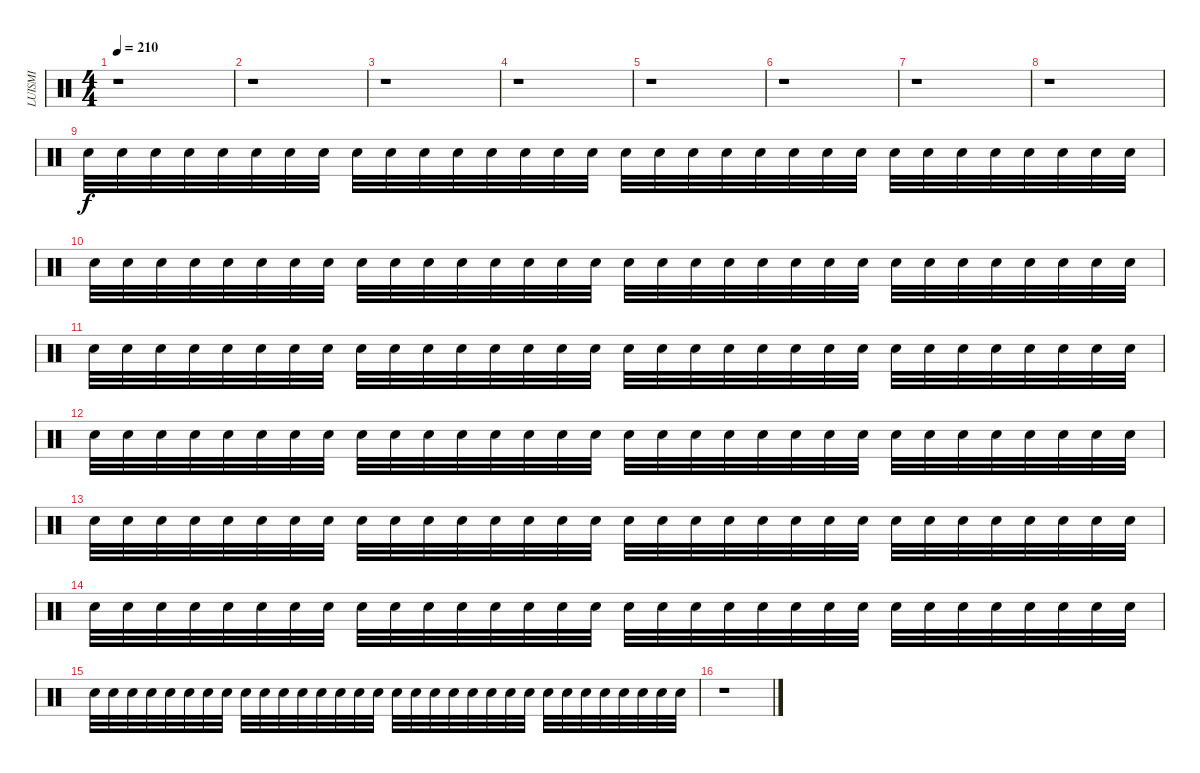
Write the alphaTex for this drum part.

\track ("LUISMI" "LUISMI") {instrument percussion}
\staff {score}
\articulation defaults
\ts (4 4)
\tempo 210
\clef neutral
\ks c
r.1{dy f} |
r.1 |
r.1 |
r.1 |
r.1 |
r.1 |
r.1 |
r.1 |
"Electric Snare (hit)".32{volume 1} "Snare (hit) 2".32 "Snare (hit) 2".32 "Snare (hit) 2".32 "Snare (hit) 2".32 "Snare (hit) 2".32 "Snare (hit) 2".32 "Snare (hit) 2".32 "Snare (hit) 2".32 "Snare (hit) 2".32 "Snare (hit) 2".32 "Snare (hit) 2".32 "Snare (hit) 2".32 "Snare (hit) 2".32 "Snare (hit) 2".32 "Snare (hit) 2".32 "Electric Snare (hit)".32{volume 2} "Snare (hit) 2".32 "Snare (hit) 2".32 "Snare (hit) 2".32 "Snare (hit) 2".32 "Snare (hit) 2".32 "Snare (hit) 2".32 "Snare (hit) 2".32 "Snare (hit) 2".32 "Snare (hit) 2".32 "Snare (hit) 2".32 "Snare (hit) 2".32 "Snare (hit) 2".32 "Snare (hit) 2".32 "Snare (hit) 2".32 "Snare (hit) 2".32 |
"Electric Snare (hit)".32 "Snare (hit) 2".32 "Snare (hit) 2".32 "Snare (hit) 2".32 "Snare (hit) 2".32 "Snare (hit) 2".32 "Snare (hit) 2".32 "Snare (hit) 2".32 "Snare (hit) 2".32 "Snare (hit) 2".32 "Snare (hit) 2".32 "Snare (hit) 2".32 "Snare (hit) 2".32 "Snare (hit) 2".32 "Snare (hit) 2".32 "Snare (hit) 2".32 "Electric Snare (hit)".32 "Snare (hit) 2".32 "Snare (hit) 2".32 "Snare (hit) 2".32 "Snare (hit) 2".32 "Snare (hit) 2".32 "Snare (hit) 2".32 "Snare (hit) 2".32 "Snare (hit) 2".32 "Snare (hit) 2".32 "Snare (hit) 2".32 "Snare (hit) 2".32 "Snare (hit) 2".32 "Snare (hit) 2".32 "Snare (hit) 2".32 "Snare (hit) 2".32 |
"Electric Snare (hit)".32 "Snare (hit) 2".32 "Snare (hit) 2".32 "Snare (hit) 2".32 "Snare (hit) 2".32 "Snare (hit) 2".32 "Snare (hit) 2".32 "Snare (hit) 2".32 "Snare (hit) 2".32 "Snare (hit) 2".32 "Snare (hit) 2".32 "Snare (hit) 2".32 "Snare (hit) 2".32 "Snare (hit) 2".32 "Snare (hit) 2".32 "Snare (hit) 2".32 "Electric Snare (hit)".32 "Snare (hit) 2".32 "Snare (hit) 2".32 "Snare (hit) 2".32 "Snare (hit) 2".32 "Snare (hit) 2".32 "Snare (hit) 2".32 "Snare (hit) 2".32 "Snare (hit) 2".32 "Snare (hit) 2".32 "Snare (hit) 2".32 "Snare (hit) 2".32 "Snare (hit) 2".32 "Snare (hit) 2".32 "Snare (hit) 2".32 "Snare (hit) 2".32 |
"Electric Snare (hit)".32 "Snare (hit) 2".32 "Snare (hit) 2".32 "Snare (hit) 2".32 "Snare (hit) 2".32 "Snare (hit) 2".32 "Snare (hit) 2".32 "Snare (hit) 2".32 "Snare (hit) 2".32 "Snare (hit) 2".32 "Snare (hit) 2".32 "Snare (hit) 2".32 "Snare (hit) 2".32 "Snare (hit) 2".32 "Snare (hit) 2".32 "Snare (hit) 2".32 "Electric Snare (hit)".32 "Snare (hit) 2".32 "Snare (hit) 2".32 "Snare (hit) 2".32 "Snare (hit) 2".32 "Snare (hit) 2".32 "Snare (hit) 2".32 "Snare (hit) 2".32 "Snare (hit) 2".32 "Snare (hit) 2".32 "Snare (hit) 2".32 "Snare (hit) 2".32 "Snare (hit) 2".32 "Snare (hit) 2".32 "Snare (hit) 2".32 "Snare (hit) 2".32 |
"Electric Snare (hit)".32{volume 3} "Snare (hit) 2".32 "Snare (hit) 2".32 "Snare (hit) 2".32 "Snare (hit) 2".32 "Snare (hit) 2".32 "Snare (hit) 2".32 "Snare (hit) 2".32 "Snare (hit) 2".32 "Snare (hit) 2".32 "Snare (hit) 2".32 "Snare (hit) 2".32 "Snare (hit) 2".32 "Snare (hit) 2".32 "Snare (hit) 2".32 "Snare (hit) 2".32 "Electric Snare (hit)".32 "Snare (hit) 2".32 "Snare (hit) 2".32 "Snare (hit) 2".32 "Snare (hit) 2".32 "Snare (hit) 2".32 "Snare (hit) 2".32 "Snare (hit) 2".32 "Snare (hit) 2".32 "Snare (hit) 2".32 "Snare (hit) 2".32 "Snare (hit) 2".32 "Snare (hit) 2".32 "Snare (hit) 2".32 "Snare (hit) 2".32 "Snare (hit) 2".32 |
"Electric Snare (hit)".32{volume 4} "Snare (hit) 2".32 "Snare (hit) 2".32 "Snare (hit) 2".32 "Snare (hit) 2".32 "Snare (hit) 2".32 "Snare (hit) 2".32 "Snare (hit) 2".32 "Snare (hit) 2".32 "Snare (hit) 2".32 "Snare (hit) 2".32 "Snare (hit) 2".32 "Snare (hit) 2".32 "Snare (hit) 2".32 "Snare (hit) 2".32 "Snare (hit) 2".32 "Electric Snare (hit)".32 "Snare (hit) 2".32 "Snare (hit) 2".32 "Snare (hit) 2".32 "Snare (hit) 2".32 "Snare (hit) 2".32 "Snare (hit) 2".32 "Snare (hit) 2".32 "Snare (hit) 2".32 "Snare (hit) 2".32 "Snare (hit) 2".32 "Snare (hit) 2".32 "Snare (hit) 2".32 "Snare (hit) 2".32 "Snare (hit) 2".32 "Snare (hit) 2".32 |
"Electric Snare (hit)".32{volume 5} "Snare (hit) 2".32 "Snare (hit) 2".32 "Snare (hit) 2".32 "Snare (hit) 2".32 "Snare (hit) 2".32 "Snare (hit) 2".32 "Snare (hit) 2".32 "Snare (hit) 2".32 "Snare (hit) 2".32 "Snare (hit) 2".32 "Snare (hit) 2".32 "Snare (hit) 2".32 "Snare (hit) 2".32 "Snare (hit) 2".32 "Snare (hit) 2".32 "Electric Snare (hit)".32 "Snare (hit) 2".32 "Snare (hit) 2".32 "Snare (hit) 2".32 "Snare (hit) 2".32 "Snare (hit) 2".32 "Snare (hit) 2".32 "Snare (hit) 2".32 "Snare (hit) 2".32 "Snare (hit) 2".32 "Snare (hit) 2".32 "Snare (hit) 2".32 "Snare (hit) 2".32 "Snare (hit) 2".32 "Snare (hit) 2".32 "Electric Snare (hit)".32{volume 16} |
r.1
